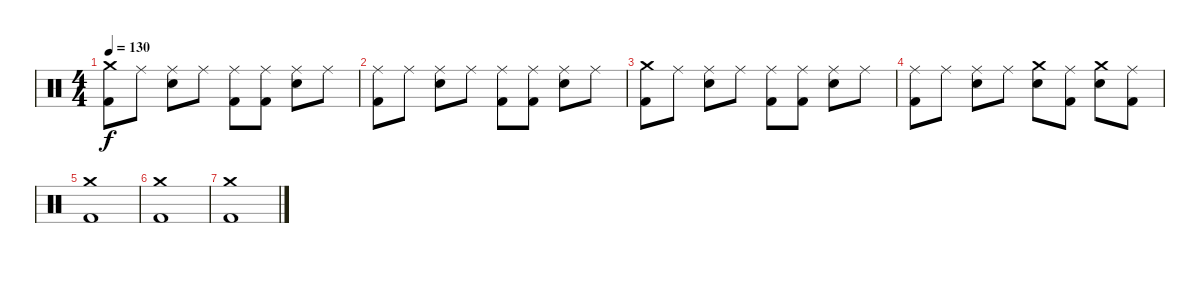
\track "" {instrument percussion}
\staff {score}
\articulation defaults
\ts (4 4)
\tempo 130
\clef neutral
\ks c
("Crash medium (hit)" "Kick (hit) 2").8{dy f} "Ride (middle)".8 ("Ride (middle)" "Electric Snare (hit)").8 "Ride (middle)".8 ("Ride (middle)" "Kick (hit) 2").8 ("Ride (middle)" "Kick (hit) 2").8 ("Ride (middle)" "Electric Snare (hit)").8 "Ride (middle)".8 |
("Ride (middle)" "Kick (hit) 2").8 "Ride (middle)".8 ("Ride (middle)" "Electric Snare (hit)").8 "Ride (middle)".8 ("Ride (middle)" "Kick (hit) 2").8 ("Ride (middle)" "Kick (hit) 2").8 ("Ride (middle)" "Electric Snare (hit)").8 "Ride (middle)".8 |
("Crash medium (hit)" "Kick (hit) 2").8 "Ride (middle)".8 ("Ride (middle)" "Electric Snare (hit)").8 "Ride (middle)".8 ("Ride (middle)" "Kick (hit) 2").8 ("Ride (middle)" "Kick (hit) 2").8 ("Ride (middle)" "Electric Snare (hit)").8 "Ride (middle)".8 |
("Ride (middle)" "Kick (hit) 2").8 "Ride (middle)".8 ("Ride (middle)" "Electric Snare (hit)").8 "Ride (middle)".8 ("Crash medium (hit)" "Electric Snare (hit)").8 ("Ride (middle)" "Kick (hit) 2").8 ("Crash medium (hit)" "Electric Snare (hit)").8 ("Ride (middle)" "Kick (hit) 2").8 |
("Crash medium (hit)" "Kick (hit) 2").1 |
("Crash medium (hit)" "Kick (hit) 2").1 |
("Crash medium (hit)" "Kick (hit) 2").1
